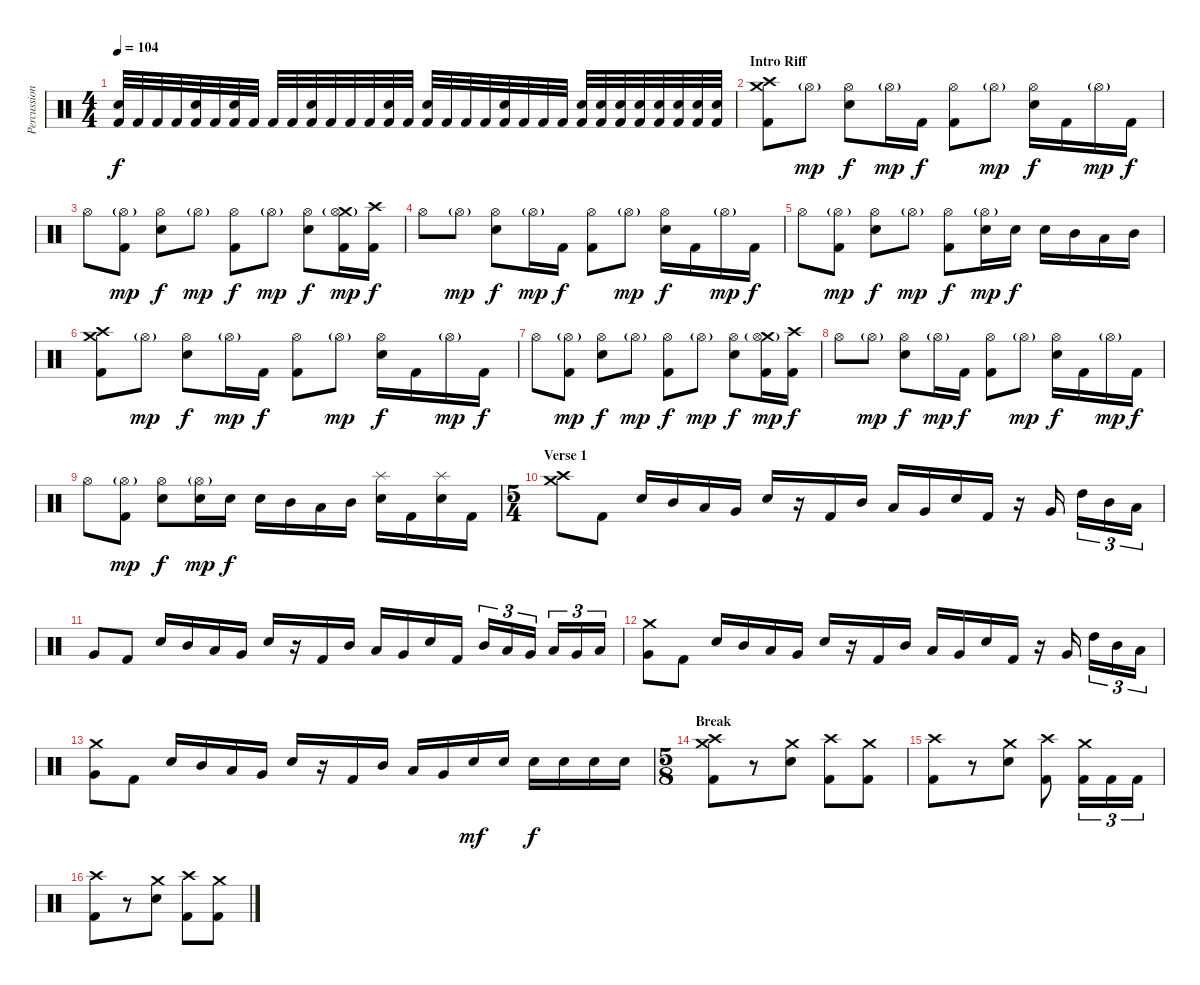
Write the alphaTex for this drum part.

\track ("Percussions" "Percussion") {instrument percussion}
\staff {score}
\articulation defaults
\ts (4 4)
\tempo 104
\clef neutral
\ks c
("Electric Snare (hit)" "Kick (hit) 2").32{dy f} "Kick (hit) 2".32 "Kick (hit) 2".32 "Kick (hit) 2".32 ("Electric Snare (hit)" "Kick (hit) 2").32 "Kick (hit) 2".32 ("Electric Snare (hit)" "Kick (hit) 2").32 "Kick (hit) 2".32 "Kick (hit) 2".32 "Kick (hit) 2".32 ("Electric Snare (hit)" "Kick (hit) 2").32 "Kick (hit) 2".32 "Kick (hit) 2".32 "Kick (hit) 2".32 ("Electric Snare (hit)" "Kick (hit) 2").32 "Kick (hit) 2".32 ("Electric Snare (hit)" "Kick (hit) 2").32 "Kick (hit) 2".32 "Kick (hit) 2".32 "Kick (hit) 2".32 ("Electric Snare (hit)" "Kick (hit) 2").32 "Kick (hit) 2".32 "Kick (hit) 2".32 "Kick (hit) 2".32 ("Electric Snare (hit)" "Kick (hit) 2").32 ("Electric Snare (hit)" "Kick (hit) 2").32 ("Electric Snare (hit)" "Kick (hit) 2").32 ("Electric Snare (hit)" "Kick (hit) 2").32 ("Electric Snare (hit)" "Kick (hit) 2").32 ("Electric Snare (hit)" "Kick (hit) 2").32 ("Electric Snare (hit)" "Kick (hit) 2").32 ("Electric Snare (hit)" "Kick (hit) 2").32 |
\section ("" "Intro Riff")
("Crash high (hit)" "Crash medium (hit)" "Kick (hit) 2").8 "Hi-Hat (open)"{g}.8{dy mp} ("Hi-Hat (open)" "Electric Snare (hit)").8{dy f} "Hi-Hat (open)"{g}.16{dy mp} "Kick (hit) 2".16{dy f} ("Hi-Hat (open)" "Kick (hit) 2").8 "Hi-Hat (open)"{g}.8{dy mp} ("Hi-Hat (open)" "Electric Snare (hit)").16{dy f} "Kick (hit) 2".16 "Hi-Hat (open)"{g}.16{dy mp} "Kick (hit) 2".16{dy f} |
"Hi-Hat (open)".8 ("Hi-Hat (open)"{g} "Kick (hit) 2").8{dy mp} ("Hi-Hat (open)" "Electric Snare (hit)").8{dy f} "Hi-Hat (open)"{g}.8{dy mp} ("Hi-Hat (open)" "Kick (hit) 2").8{dy f} "Hi-Hat (open)"{g}.8{dy mp} ("Hi-Hat (open)" "Electric Snare (hit)").8{dy f} ("Crash medium (hit)" "Hi-Hat (open)"{g} "Kick (hit) 2").16{dy mp} ("Crash high (hit)" "Kick (hit) 2").16{dy f} |
"Hi-Hat (open)".8 "Hi-Hat (open)"{g}.8{dy mp} ("Hi-Hat (open)" "Electric Snare (hit)").8{dy f} "Hi-Hat (open)"{g}.16{dy mp} "Kick (hit) 2".16{dy f} ("Hi-Hat (open)" "Kick (hit) 2").8 "Hi-Hat (open)"{g}.8{dy mp} ("Hi-Hat (open)" "Electric Snare (hit)").16{dy f} "Kick (hit) 2".16 "Hi-Hat (open)"{g}.16{dy mp} "Kick (hit) 2".16{dy f} |
"Hi-Hat (open)".8 ("Hi-Hat (open)"{g} "Kick (hit) 2").8{dy mp} ("Hi-Hat (open)" "Electric Snare (hit)").8{dy f} "Hi-Hat (open)"{g}.8{dy mp} ("Hi-Hat (open)" "Kick (hit) 2").8{dy f} ("Hi-Hat (open)"{g} "Electric Snare (hit)").16{dy mp} "Electric Snare (hit)".16{dy f} "Electric Snare (hit)".16 "Mid Tom (hit)".16 "Low Tom (hit)".16 "Mid Tom (hit)".16 |
("Crash high (hit)" "Crash medium (hit)" "Kick (hit) 2").8 "Hi-Hat (open)"{g}.8{dy mp} ("Hi-Hat (open)" "Electric Snare (hit)").8{dy f} "Hi-Hat (open)"{g}.16{dy mp} "Kick (hit) 2".16{dy f} ("Hi-Hat (open)" "Kick (hit) 2").8 "Hi-Hat (open)"{g}.8{dy mp} ("Hi-Hat (open)" "Electric Snare (hit)").16{dy f} "Kick (hit) 2".16 "Hi-Hat (open)"{g}.16{dy mp} "Kick (hit) 2".16{dy f} |
"Hi-Hat (open)".8 ("Hi-Hat (open)"{g} "Kick (hit) 2").8{dy mp} ("Hi-Hat (open)" "Electric Snare (hit)").8{dy f} "Hi-Hat (open)"{g}.8{dy mp} ("Hi-Hat (open)" "Kick (hit) 2").8{dy f} "Hi-Hat (open)"{g}.8{dy mp} ("Hi-Hat (open)" "Electric Snare (hit)").8{dy f} ("Crash medium (hit)" "Hi-Hat (open)"{g} "Kick (hit) 2").16{dy mp} ("Crash high (hit)" "Kick (hit) 2").16{dy f} |
"Hi-Hat (open)".8 "Hi-Hat (open)"{g}.8{dy mp} ("Hi-Hat (open)" "Electric Snare (hit)").8{dy f} "Hi-Hat (open)"{g}.16{dy mp} "Kick (hit) 2".16{dy f} ("Hi-Hat (open)" "Kick (hit) 2").8 "Hi-Hat (open)"{g}.8{dy mp} ("Hi-Hat (open)" "Electric Snare (hit)").16{dy f} "Kick (hit) 2".16 "Hi-Hat (open)"{g}.16{dy mp} "Kick (hit) 2".16{dy f} |
"Hi-Hat (open)".8 ("Hi-Hat (open)"{g} "Kick (hit) 2").8{dy mp} ("Hi-Hat (open)" "Electric Snare (hit)").8{dy f} ("Hi-Hat (open)"{g} "Electric Snare (hit)").16{dy mp} "Electric Snare (hit)".16{dy f} "Electric Snare (hit)".16 "Mid Tom (hit)".16 "Low Tom (hit)".16 "Mid Tom (hit)".16 ("Splash (hit)" "Electric Snare (hit)").16 "Kick (hit) 2".16 ("Splash (hit)" "Electric Snare (hit)").16 "Kick (hit) 2".16 |
\ts (5 4)
\section ("" "Verse 1")
("Crash high (hit)" "Crash medium (hit)").8 "Kick (hit) 2".8 "Electric Snare (hit)".16 "Mid Tom (hit)".16 "Low Tom (hit)".16 "Very Low Tom (hit)".16 "Electric Snare (hit)".16 r.16 "Kick (hit) 2".16 "Mid Tom (hit)".16 "Low Tom (hit)".16 "Very Low Tom (hit)".16 "Electric Snare (hit)".16 "Kick (hit) 2".16 r.16 "Very Low Tom (hit)".16 "High Tom (hit)".16{tu (3 2)} "Mid Tom (hit)".16{tu (3 2)} "Low Tom (hit)".16{tu (3 2)} |
"Very Low Tom (hit)".8 "Kick (hit) 2".8 "Electric Snare (hit)".16 "Mid Tom (hit)".16 "Low Tom (hit)".16 "Very Low Tom (hit)".16 "Electric Snare (hit)".16 r.16 "Kick (hit) 2".16 "Mid Tom (hit)".16 "Low Tom (hit)".16 "Very Low Tom (hit)".16 "Electric Snare (hit)".16 "Kick (hit) 2".16 "Mid Tom (hit)".16{tu (3 2)} "Low Tom (hit)".16{tu (3 2)} "Very Low Tom (hit)".16{tu (3 2)} "Low Tom (hit)".16{tu (3 2)} "Very Low Tom (hit)".16{tu (3 2)} "Low Floor Tom (hit)".16{tu (3 2)} |
("Crash medium (hit)" "Very Low Tom (hit)").8 "Kick (hit) 2".8 "Electric Snare (hit)".16 "Mid Tom (hit)".16 "Low Tom (hit)".16 "Very Low Tom (hit)".16 "Electric Snare (hit)".16 r.16 "Kick (hit) 2".16 "Mid Tom (hit)".16 "Low Tom (hit)".16 "Very Low Tom (hit)".16 "Electric Snare (hit)".16 "Kick (hit) 2".16 r.16 "Very Low Tom (hit)".16 "High Tom (hit)".16{tu (3 2)} "Mid Tom (hit)".16{tu (3 2)} "Low Tom (hit)".16{tu (3 2)} |
("Crash medium (hit)" "Very Low Tom (hit)").8 "Kick (hit) 2".8 "Electric Snare (hit)".16 "Mid Tom (hit)".16 "Low Tom (hit)".16 "Very Low Tom (hit)".16 "Electric Snare (hit)".16 r.16 "Kick (hit) 2".16 "Mid Tom (hit)".16 "Low Tom (hit)".16 "Very Low Tom (hit)".16 "Electric Snare (hit)".16{dy mf} "Electric Snare (hit)".16 "Electric Snare (hit)".16{dy f} "Electric Snare (hit)".16 "Electric Snare (hit)".16 "Electric Snare (hit)".16 |
\ts (5 8)
\section ("" "Break")
("Crash medium (hit)" "Crash high (hit)" "Kick (hit) 2").8 r.8 ("Crash medium (hit)" "Electric Snare (hit)").8 ("Crash high (hit)" "Kick (hit) 2").8 ("Crash medium (hit)" "Kick (hit) 2").8 |
("Crash high (hit)" "Kick (hit) 2").8 r.8 ("Crash medium (hit)" "Electric Snare (hit)").8 ("Crash high (hit)" "Kick (hit) 2").8 ("Crash medium (hit)" "Kick (hit) 2").16{tu (3 2)} "Kick (hit) 2".16{tu (3 2)} "Kick (hit) 2".16{tu (3 2)} |
("Crash high (hit)" "Kick (hit) 2").8 r.8 ("Crash medium (hit)" "Electric Snare (hit)").8 ("Crash high (hit)" "Kick (hit) 2").8 ("Crash medium (hit)" "Kick (hit) 2").8
